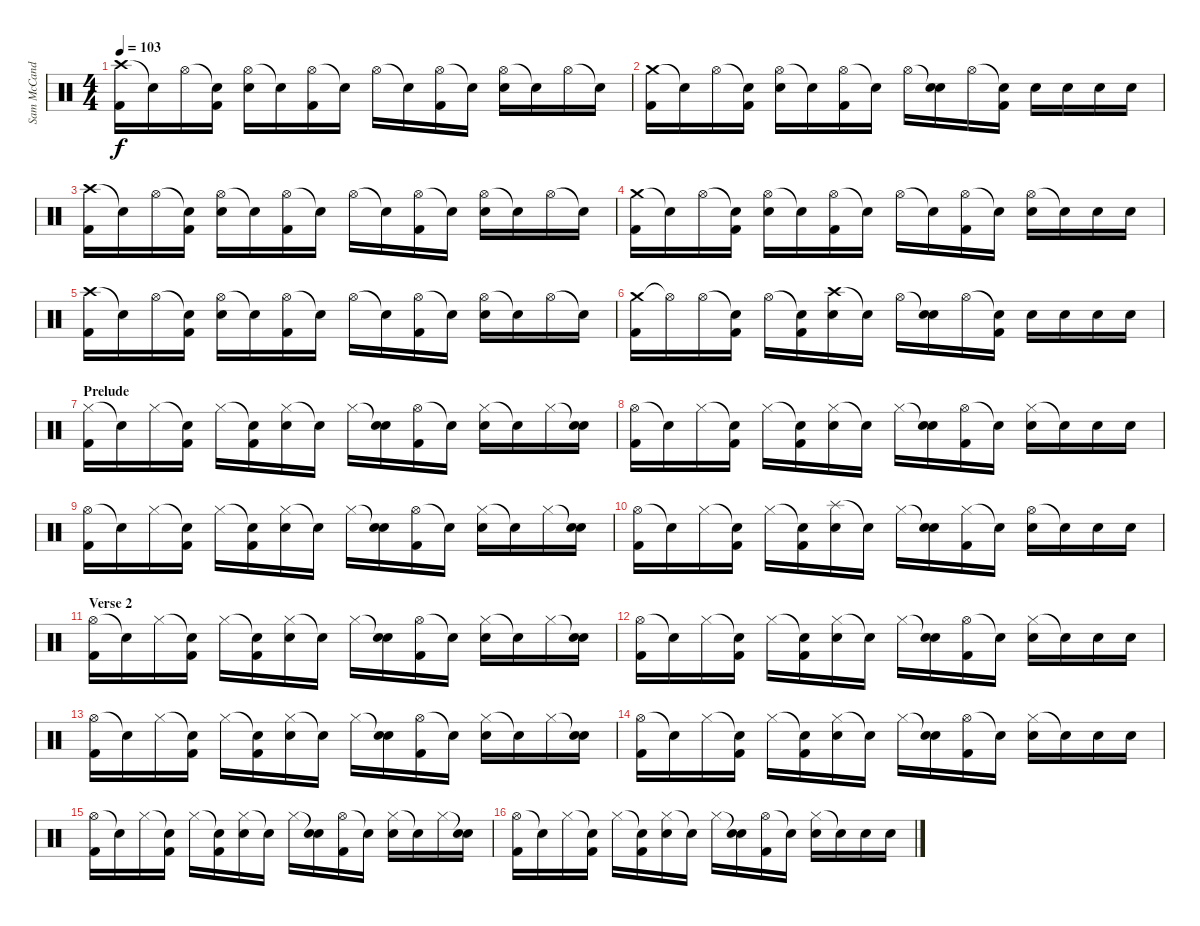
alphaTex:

\track ("Sam McCandless (Drums)" "Sam McCand") {instrument percussion}
\staff {score}
\articulation defaults
\ts (4 4)
\tempo 103
\clef neutral
\ks c
("Crash high (hit)" "Kick (hit) 2").16{dy f} "Snare (hit)"{t}.16 "Hi-Hat (open)".16 ("Snare (hit)"{t} "Kick (hit) 2").16 ("Hi-Hat (open)" "Electric Snare (hit)").16 "Snare (hit)"{t}.16 ("Hi-Hat (open)" "Kick (hit) 2").16 "Snare (hit)"{t}.16 "Hi-Hat (open)".16 "Snare (hit)"{t}.16 ("Hi-Hat (open)" "Kick (hit) 2").16 "Snare (hit)"{t}.16 ("Hi-Hat (open)" "Electric Snare (hit)").16 "Snare (hit)"{t}.16 "Hi-Hat (open)".16 "Snare (hit)"{t}.16 |
("Crash medium (hit)" "Kick (hit) 2").16 "Snare (hit)"{t}.16 "Hi-Hat (open)".16 ("Snare (hit)"{t} "Kick (hit) 2").16 ("Hi-Hat (open)" "Electric Snare (hit)").16 "Snare (hit)"{t}.16 ("Hi-Hat (open)" "Kick (hit) 2").16 "Snare (hit)"{t}.16 "Hi-Hat (open)".16 ("Snare (hit)"{t} "Electric Snare (hit)").16 "Hi-Hat (open)".16 ("Snare (hit)"{t} "Kick (hit) 2").16 "Electric Snare (hit)".16 "Electric Snare (hit)".16 "Electric Snare (hit)".16 "Electric Snare (hit)".16 |
("Crash high (hit)" "Kick (hit) 2").16 "Snare (hit)"{t}.16 "Hi-Hat (open)".16 ("Snare (hit)"{t} "Kick (hit) 2").16 ("Hi-Hat (open)" "Electric Snare (hit)").16 "Snare (hit)"{t}.16 ("Hi-Hat (open)" "Kick (hit) 2").16 "Snare (hit)"{t}.16 "Hi-Hat (open)".16 "Snare (hit)"{t}.16 ("Hi-Hat (open)" "Kick (hit) 2").16 "Snare (hit)"{t}.16 ("Hi-Hat (open)" "Electric Snare (hit)").16 "Snare (hit)"{t}.16 "Hi-Hat (open)".16 "Snare (hit)"{t}.16 |
("Crash medium (hit)" "Kick (hit) 2").16 "Snare (hit)"{t}.16 "Hi-Hat (open)".16 ("Snare (hit)"{t} "Kick (hit) 2").16 ("Hi-Hat (open)" "Electric Snare (hit)").16 "Snare (hit)"{t}.16 ("Hi-Hat (open)" "Kick (hit) 2").16 "Snare (hit)"{t}.16 "Hi-Hat (open)".16 "Snare (hit)"{t}.16 ("Hi-Hat (open)" "Kick (hit) 2").16 "Snare (hit)"{t}.16 ("Hi-Hat (open)" "Electric Snare (hit)").16 "Snare (hit)"{t}.16 "Electric Snare (hit)".16 "Electric Snare (hit)".16 |
("Crash high (hit)" "Kick (hit) 2").16 "Snare (hit)"{t}.16 "Hi-Hat (open)".16 ("Snare (hit)"{t} "Kick (hit) 2").16 ("Hi-Hat (open)" "Electric Snare (hit)").16 "Snare (hit)"{t}.16 ("Hi-Hat (open)" "Kick (hit) 2").16 "Snare (hit)"{t}.16 "Hi-Hat (open)".16 "Snare (hit)"{t}.16 ("Hi-Hat (open)" "Kick (hit) 2").16 "Snare (hit)"{t}.16 ("Hi-Hat (open)" "Electric Snare (hit)").16 "Snare (hit)"{t}.16 "Hi-Hat (open)".16 "Snare (hit)"{t}.16 |
("Crash medium (hit)" "Kick (hit) 2").16 "Hi-Hat (open)"{t}.16 "Hi-Hat (open)".16 ("Snare (hit)"{t} "Kick (hit) 2").16 "Hi-Hat (open)".16 ("Snare (hit)"{t} "Kick (hit) 2").16 ("Crash high (hit)" "Electric Snare (hit)").16 "Snare (hit)"{t}.16 "Hi-Hat (open)".16 ("Snare (hit)"{t} "Electric Snare (hit)").16 "Hi-Hat (open)".16 ("Snare (hit)"{t} "Kick (hit) 2").16 "Electric Snare (hit)".16 "Electric Snare (hit)".16 "Electric Snare (hit)".16 "Electric Snare (hit)".16 |
\section ("" "Prelude")
("Hi-Hat (closed)" "Kick (hit) 2").16 "Snare (hit)"{t}.16 "Hi-Hat (closed)".16 ("Snare (hit)"{t} "Kick (hit) 2").16 "Hi-Hat (closed)".16 ("Snare (hit)"{t} "Kick (hit) 2").16 ("Hi-Hat (closed)" "Electric Snare (hit)").16 "Snare (hit)"{t}.16 "Hi-Hat (closed)".16 ("Snare (hit)"{t} "Electric Snare (hit)").16 ("Hi-Hat (open)" "Kick (hit) 2").16 "Snare (hit)"{t}.16 ("Hi-Hat (closed)" "Electric Snare (hit)").16 "Snare (hit)"{t}.16 "Hi-Hat (closed)".16 ("Snare (hit)"{t} "Electric Snare (hit)").16 |
("Hi-Hat (open)" "Kick (hit) 2").16 "Snare (hit)"{t}.16 "Hi-Hat (closed)".16 ("Snare (hit)"{t} "Kick (hit) 2").16 "Hi-Hat (closed)".16 ("Snare (hit)"{t} "Kick (hit) 2").16 ("Hi-Hat (closed)" "Electric Snare (hit)").16 "Snare (hit)"{t}.16 "Hi-Hat (closed)".16 ("Snare (hit)"{t} "Electric Snare (hit)").16 ("Hi-Hat (open)" "Kick (hit) 2").16 "Snare (hit)"{t}.16 ("Hi-Hat (closed)" "Electric Snare (hit)").16 "Snare (hit)"{t}.16 "Electric Snare (hit)".16 "Electric Snare (hit)".16 |
("Hi-Hat (open)" "Kick (hit) 2").16 "Snare (hit)"{t}.16 "Hi-Hat (closed)".16 ("Snare (hit)"{t} "Kick (hit) 2").16 "Hi-Hat (closed)".16 ("Snare (hit)"{t} "Kick (hit) 2").16 ("Hi-Hat (closed)" "Electric Snare (hit)").16 "Snare (hit)"{t}.16 "Hi-Hat (closed)".16 ("Snare (hit)"{t} "Electric Snare (hit)").16 ("Hi-Hat (open)" "Kick (hit) 2").16 "Snare (hit)"{t}.16 ("Hi-Hat (closed)" "Electric Snare (hit)").16 "Snare (hit)"{t}.16 "Hi-Hat (closed)".16 ("Snare (hit)"{t} "Electric Snare (hit)").16 |
("Hi-Hat (open)" "Kick (hit) 2").16 "Snare (hit)"{t}.16 "Hi-Hat (closed)".16 ("Snare (hit)"{t} "Kick (hit) 2").16 "Hi-Hat (closed)".16 ("Snare (hit)"{t} "Kick (hit) 2").16 ("Splash (hit)" "Electric Snare (hit)").16 "Snare (hit)"{t}.16 "Hi-Hat (closed)".16 ("Snare (hit)"{t} "Electric Snare (hit)").16 ("Hi-Hat (closed)" "Kick (hit) 2").16 "Snare (hit)"{t}.16 ("Hi-Hat (open)" "Electric Snare (hit)").16 "Snare (hit)"{t}.16 "Electric Snare (hit)".16 "Electric Snare (hit)".16 |
\section ("" "Verse 2")
("Hi-Hat (open)" "Kick (hit) 2").16 "Snare (hit)"{t}.16 "Hi-Hat (closed)".16 ("Snare (hit)"{t} "Kick (hit) 2").16 "Hi-Hat (closed)".16 ("Snare (hit)"{t} "Kick (hit) 2").16 ("Hi-Hat (closed)" "Electric Snare (hit)").16 "Snare (hit)"{t}.16 "Hi-Hat (closed)".16 ("Snare (hit)"{t} "Electric Snare (hit)").16 ("Hi-Hat (open)" "Kick (hit) 2").16 "Snare (hit)"{t}.16 ("Hi-Hat (closed)" "Electric Snare (hit)").16 "Snare (hit)"{t}.16 "Hi-Hat (closed)".16 ("Snare (hit)"{t} "Electric Snare (hit)").16 |
("Hi-Hat (open)" "Kick (hit) 2").16 "Snare (hit)"{t}.16 "Hi-Hat (closed)".16 ("Snare (hit)"{t} "Kick (hit) 2").16 "Hi-Hat (closed)".16 ("Snare (hit)"{t} "Kick (hit) 2").16 ("Hi-Hat (closed)" "Electric Snare (hit)").16 "Snare (hit)"{t}.16 "Hi-Hat (closed)".16 ("Snare (hit)"{t} "Electric Snare (hit)").16 ("Hi-Hat (open)" "Kick (hit) 2").16 "Snare (hit)"{t}.16 ("Hi-Hat (closed)" "Electric Snare (hit)").16 "Snare (hit)"{t}.16 "Electric Snare (hit)".16 "Electric Snare (hit)".16 |
("Hi-Hat (open)" "Kick (hit) 2").16 "Snare (hit)"{t}.16 "Hi-Hat (closed)".16 ("Snare (hit)"{t} "Kick (hit) 2").16 "Hi-Hat (closed)".16 ("Snare (hit)"{t} "Kick (hit) 2").16 ("Hi-Hat (closed)" "Electric Snare (hit)").16 "Snare (hit)"{t}.16 "Hi-Hat (closed)".16 ("Snare (hit)"{t} "Electric Snare (hit)").16 ("Hi-Hat (open)" "Kick (hit) 2").16 "Snare (hit)"{t}.16 ("Hi-Hat (closed)" "Electric Snare (hit)").16 "Snare (hit)"{t}.16 "Hi-Hat (closed)".16 ("Snare (hit)"{t} "Electric Snare (hit)").16 |
("Hi-Hat (open)" "Kick (hit) 2").16 "Snare (hit)"{t}.16 "Hi-Hat (closed)".16 ("Snare (hit)"{t} "Kick (hit) 2").16 "Hi-Hat (closed)".16 ("Snare (hit)"{t} "Kick (hit) 2").16 ("Hi-Hat (closed)" "Electric Snare (hit)").16 "Snare (hit)"{t}.16 "Hi-Hat (closed)".16 ("Snare (hit)"{t} "Electric Snare (hit)").16 ("Hi-Hat (open)" "Kick (hit) 2").16 "Snare (hit)"{t}.16 ("Hi-Hat (closed)" "Electric Snare (hit)").16 "Snare (hit)"{t}.16 "Electric Snare (hit)".16 "Electric Snare (hit)".16 |
("Hi-Hat (open)" "Kick (hit) 2").16 "Snare (hit)"{t}.16 "Hi-Hat (closed)".16 ("Snare (hit)"{t} "Kick (hit) 2").16 "Hi-Hat (closed)".16 ("Snare (hit)"{t} "Kick (hit) 2").16 ("Hi-Hat (closed)" "Electric Snare (hit)").16 "Snare (hit)"{t}.16 "Hi-Hat (closed)".16 ("Snare (hit)"{t} "Electric Snare (hit)").16 ("Hi-Hat (open)" "Kick (hit) 2").16 "Snare (hit)"{t}.16 ("Hi-Hat (closed)" "Electric Snare (hit)").16 "Snare (hit)"{t}.16 "Hi-Hat (closed)".16 ("Snare (hit)"{t} "Electric Snare (hit)").16 |
("Hi-Hat (open)" "Kick (hit) 2").16 "Snare (hit)"{t}.16 "Hi-Hat (closed)".16 ("Snare (hit)"{t} "Kick (hit) 2").16 "Hi-Hat (closed)".16 ("Snare (hit)"{t} "Kick (hit) 2").16 ("Hi-Hat (closed)" "Electric Snare (hit)").16 "Snare (hit)"{t}.16 "Hi-Hat (closed)".16 ("Snare (hit)"{t} "Electric Snare (hit)").16 ("Hi-Hat (open)" "Kick (hit) 2").16 "Snare (hit)"{t}.16 ("Hi-Hat (closed)" "Electric Snare (hit)").16 "Snare (hit)"{t}.16 "Electric Snare (hit)".16 "Electric Snare (hit)".16
